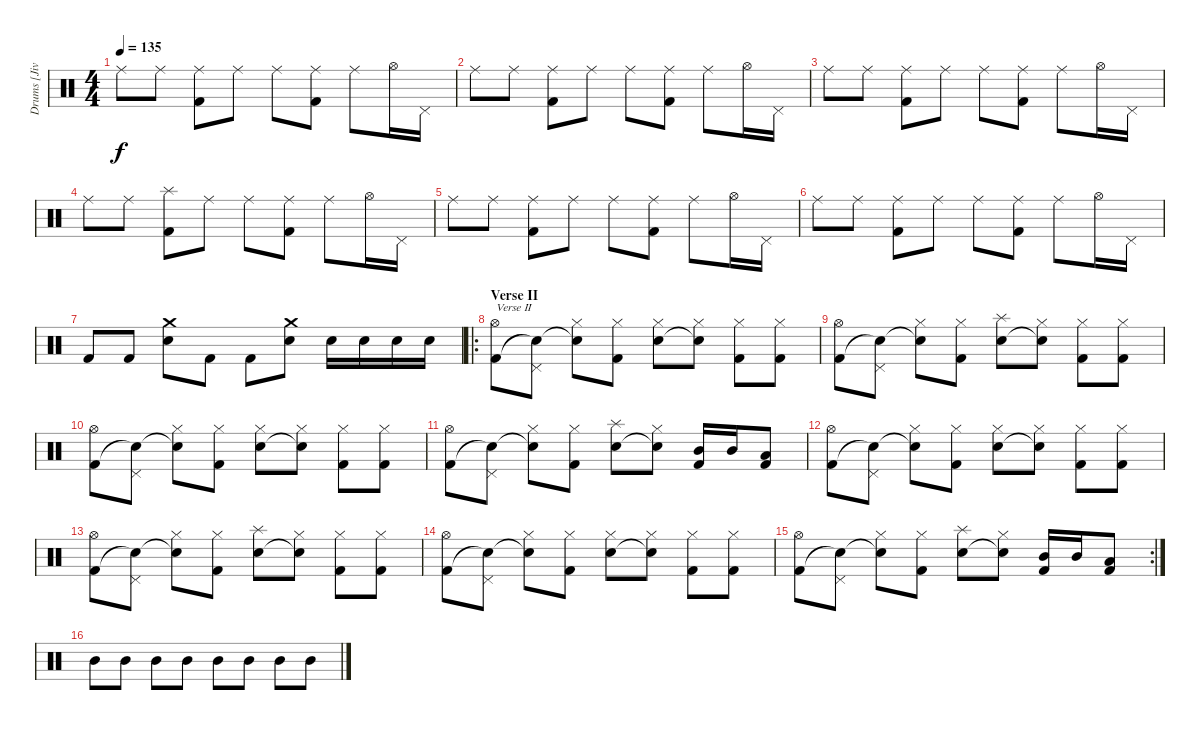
\track ("Drums [Jivarp]" "Drums [Jiv") {instrument percussion}
\staff {score}
\articulation defaults
\ts (4 4)
\tempo 135
\clef neutral
\ks c "Ride (middle)".8{dy f} "Ride (middle)".8
("Ride (middle)" "Kick (hit) 2").8 "Ride (middle)".8 "Ride (middle)".8 ("Ride (middle)" "Kick (hit) 2").8 "Ride (middle)".8 "Hi-Hat (open)".16 "Pedal Hi-Hat (hit)".16 |
"Ride (middle)".8 "Ride (middle)".8 ("Ride (middle)" "Kick (hit) 2").8 "Ride (middle)".8 "Ride (middle)".8 ("Ride (middle)" "Kick (hit) 2").8 "Ride (middle)".8 "Hi-Hat (open)".16 "Pedal Hi-Hat (hit)".16 |
"Ride (middle)".8 "Ride (middle)".8 ("Ride (middle)" "Kick (hit) 2").8 "Ride (middle)".8 "Ride (middle)".8 ("Ride (middle)" "Kick (hit) 2").8 "Ride (middle)".8 "Hi-Hat (open)".16 "Pedal Hi-Hat (hit)".16 |
"Ride (middle)".8 "Ride (middle)".8 ("Splash (hit)" "Kick (hit) 2").8 "Ride (middle)".8 "Ride (middle)".8 ("Ride (middle)" "Kick (hit) 2").8 "Ride (middle)".8 "Hi-Hat (open)".16 "Pedal Hi-Hat (hit)".16 |
"Ride (middle)".8 "Ride (middle)".8 ("Ride (middle)" "Kick (hit) 2").8 "Ride (middle)".8 "Ride (middle)".8 ("Ride (middle)" "Kick (hit) 2").8 "Ride (middle)".8 "Hi-Hat (open)".16 "Pedal Hi-Hat (hit)".16 |
"Ride (middle)".8 "Ride (middle)".8 ("Ride (middle)" "Kick (hit) 2").8 "Ride (middle)".8 "Ride (middle)".8 ("Ride (middle)" "Kick (hit) 2").8 "Ride (middle)".8 "Hi-Hat (open)".16 "Pedal Hi-Hat (hit)".16 |
"Kick (hit) 2".8 "Kick (hit) 2".8 ("Crash medium (hit)" "Electric Snare (hit)").8 "Kick (hit) 2".8 "Kick (hit) 2".8 ("Crash medium (hit)" "Electric Snare (hit)").8 "Electric Snare (hit)".16 "Electric Snare (hit)".16 "Electric Snare (hit)".16 "Electric Snare (hit)".16 |
\ro
\section ("" "Verse II")
("Hi-Hat (open)" "Kick (hit) 2").8{txt "Verse II"} ("Pedal Hi-Hat (hit)" "Snare (hit)"{t}).8 ("Hi-Hat (closed)" "Snare (hit)"{t}).8 ("Hi-Hat (closed)" "Kick (hit) 2").8 ("Hi-Hat (closed)" "Electric Snare (hit)").8 ("Hi-Hat (closed)" "Snare (hit)"{t}).8 ("Hi-Hat (closed)" "Kick (hit) 2").8 ("Hi-Hat (closed)" "Kick (hit) 2").8 |
("Hi-Hat (open)" "Kick (hit) 2").8 ("Pedal Hi-Hat (hit)" "Snare (hit)"{t}).8 ("Hi-Hat (closed)" "Snare (hit)"{t}).8 ("Hi-Hat (closed)" "Kick (hit) 2").8 ("Splash (hit)" "Electric Snare (hit)").8 ("Hi-Hat (closed)" "Snare (hit)"{t}).8 ("Hi-Hat (closed)" "Kick (hit) 2").8 ("Hi-Hat (closed)" "Kick (hit) 2").8 |
("Hi-Hat (open)" "Kick (hit) 2").8 ("Pedal Hi-Hat (hit)" "Snare (hit)"{t}).8 ("Hi-Hat (closed)" "Snare (hit)"{t}).8 ("Hi-Hat (closed)" "Kick (hit) 2").8 ("Hi-Hat (closed)" "Electric Snare (hit)").8 ("Hi-Hat (closed)" "Snare (hit)"{t}).8 ("Hi-Hat (closed)" "Kick (hit) 2").8 ("Hi-Hat (closed)" "Kick (hit) 2").8 |
("Hi-Hat (open)" "Kick (hit) 2").8 ("Pedal Hi-Hat (hit)" "Snare (hit)"{t}).8 ("Hi-Hat (closed)" "Snare (hit)"{t}).8 ("Hi-Hat (closed)" "Kick (hit) 2").8 ("Splash (hit)" "Electric Snare (hit)").8 ("Hi-Hat (closed)" "Snare (hit)"{t}).8 ("Mid Tom (hit)" "Kick (hit) 2").16 "Mid Tom (hit)".16 ("Low Tom (hit)" "Kick (hit) 2").8 |
("Hi-Hat (open)" "Kick (hit) 2").8 ("Pedal Hi-Hat (hit)" "Snare (hit)"{t}).8 ("Hi-Hat (closed)" "Snare (hit)"{t}).8 ("Hi-Hat (closed)" "Kick (hit) 2").8 ("Hi-Hat (closed)" "Electric Snare (hit)").8 ("Hi-Hat (closed)" "Snare (hit)"{t}).8 ("Hi-Hat (closed)" "Kick (hit) 2").8 ("Hi-Hat (closed)" "Kick (hit) 2").8 |
("Hi-Hat (open)" "Kick (hit) 2").8 ("Pedal Hi-Hat (hit)" "Snare (hit)"{t}).8 ("Hi-Hat (closed)" "Snare (hit)"{t}).8 ("Hi-Hat (closed)" "Kick (hit) 2").8 ("Splash (hit)" "Electric Snare (hit)").8 ("Hi-Hat (closed)" "Snare (hit)"{t}).8 ("Hi-Hat (closed)" "Kick (hit) 2").8 ("Hi-Hat (closed)" "Kick (hit) 2").8 |
("Hi-Hat (open)" "Kick (hit) 2").8 ("Pedal Hi-Hat (hit)" "Snare (hit)"{t}).8 ("Hi-Hat (closed)" "Snare (hit)"{t}).8 ("Hi-Hat (closed)" "Kick (hit) 2").8 ("Hi-Hat (closed)" "Electric Snare (hit)").8 ("Hi-Hat (closed)" "Snare (hit)"{t}).8 ("Hi-Hat (closed)" "Kick (hit) 2").8 ("Hi-Hat (closed)" "Kick (hit) 2").8 |
\rc 2
("Hi-Hat (open)" "Kick (hit) 2").8 ("Pedal Hi-Hat (hit)" "Snare (hit)"{t}).8 ("Hi-Hat (closed)" "Snare (hit)"{t}).8 ("Hi-Hat (closed)" "Kick (hit) 2").8 ("Splash (hit)" "Electric Snare (hit)").8 ("Hi-Hat (closed)" "Snare (hit)"{t}).8 ("Mid Tom (hit)" "Kick (hit) 2").16 "Mid Tom (hit)".16 ("Low Tom (hit)" "Kick (hit) 2").8 |
"Mid Tom (hit)".8 "Mid Tom (hit)".8 "Mid Tom (hit)".8 "Mid Tom (hit)".8 "Mid Tom (hit)".8 "Mid Tom (hit)".8 "Mid Tom (hit)".8 "Mid Tom (hit)".8
